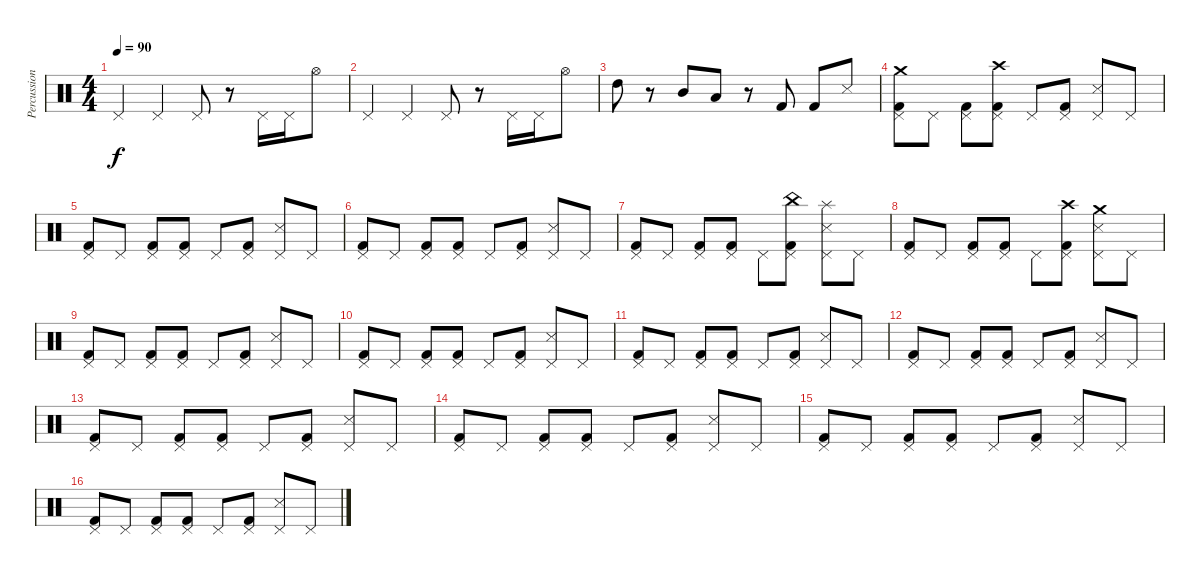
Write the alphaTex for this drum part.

\track ("Percussion" "Percussion") {instrument percussion}
\staff {score}
\articulation defaults
\ts (4 4)
\tempo 90
\clef neutral
\ks c "Pedal Hi-Hat (hit)".4{dy f} "Pedal Hi-Hat (hit)".4 "Pedal Hi-Hat (hit)".8
r.8 "Pedal Hi-Hat (hit)".16 "Pedal Hi-Hat (hit)".16 "Hi-Hat (open)".8 |
"Pedal Hi-Hat (hit)".4 "Pedal Hi-Hat (hit)".4 "Pedal Hi-Hat (hit)".8 r.8 "Pedal Hi-Hat (hit)".16 "Pedal Hi-Hat (hit)".16 "Hi-Hat (open)".8 |
"High Tom (hit)".8 r.8 "Mid Tom (hit)".8 "Low Tom (hit)".8 r.8 "Kick (hit) 2".8 "Kick (hit) 2".8 "Snare (side stick) 3".8 |
("Pedal Hi-Hat (hit)" "Kick (hit) 2" "Crash medium (hit)").8 "Pedal Hi-Hat (hit)".8 ("Pedal Hi-Hat (hit)" "Kick (hit) 2").8 ("Pedal Hi-Hat (hit)" "Kick (hit) 2" "Crash high (hit)").8 "Pedal Hi-Hat (hit)".8 ("Pedal Hi-Hat (hit)" "Kick (hit) 2").8 ("Pedal Hi-Hat (hit)" "Snare (side stick) 3").8 "Pedal Hi-Hat (hit)".8 |
("Pedal Hi-Hat (hit)" "Kick (hit) 2").8 "Pedal Hi-Hat (hit)".8 ("Pedal Hi-Hat (hit)" "Kick (hit) 2").8 ("Pedal Hi-Hat (hit)" "Kick (hit) 2").8 "Pedal Hi-Hat (hit)".8 ("Pedal Hi-Hat (hit)" "Kick (hit) 2").8 ("Pedal Hi-Hat (hit)" "Snare (side stick) 3").8 "Pedal Hi-Hat (hit)".8 |
("Pedal Hi-Hat (hit)" "Kick (hit) 2").8 "Pedal Hi-Hat (hit)".8 ("Pedal Hi-Hat (hit)" "Kick (hit) 2").8 ("Pedal Hi-Hat (hit)" "Kick (hit) 2").8 "Pedal Hi-Hat (hit)".8 ("Pedal Hi-Hat (hit)" "Kick (hit) 2").8 ("Pedal Hi-Hat (hit)" "Snare (side stick) 3").8 "Pedal Hi-Hat (hit)".8 |
("Pedal Hi-Hat (hit)" "Kick (hit) 2").8 "Pedal Hi-Hat (hit)".8 ("Pedal Hi-Hat (hit)" "Kick (hit) 2").8 ("Pedal Hi-Hat (hit)" "Kick (hit) 2").8 "Pedal Hi-Hat (hit)".8 ("Pedal Hi-Hat (hit)" "Kick (hit) 2" "China (hit)").8 ("Pedal Hi-Hat (hit)" "Snare (side stick) 3" "Splash (hit)").8 "Pedal Hi-Hat (hit)".8 |
("Pedal Hi-Hat (hit)" "Kick (hit) 2").8 "Pedal Hi-Hat (hit)".8 ("Pedal Hi-Hat (hit)" "Kick (hit) 2").8 ("Pedal Hi-Hat (hit)" "Kick (hit) 2").8 "Pedal Hi-Hat (hit)".8 ("Pedal Hi-Hat (hit)" "Kick (hit) 2" "Crash high (hit)").8 ("Pedal Hi-Hat (hit)" "Snare (side stick) 3" "Crash medium (hit)").8 "Pedal Hi-Hat (hit)".8 |
("Pedal Hi-Hat (hit)" "Kick (hit) 2").8 "Pedal Hi-Hat (hit)".8 ("Pedal Hi-Hat (hit)" "Kick (hit) 2").8 ("Pedal Hi-Hat (hit)" "Kick (hit) 2").8 "Pedal Hi-Hat (hit)".8 ("Pedal Hi-Hat (hit)" "Kick (hit) 2").8 ("Pedal Hi-Hat (hit)" "Snare (side stick) 3").8 "Pedal Hi-Hat (hit)".8 |
("Pedal Hi-Hat (hit)" "Kick (hit) 2").8 "Pedal Hi-Hat (hit)".8 ("Pedal Hi-Hat (hit)" "Kick (hit) 2").8 ("Pedal Hi-Hat (hit)" "Kick (hit) 2").8 "Pedal Hi-Hat (hit)".8 ("Pedal Hi-Hat (hit)" "Kick (hit) 2").8 ("Pedal Hi-Hat (hit)" "Snare (side stick) 3").8 "Pedal Hi-Hat (hit)".8 |
("Pedal Hi-Hat (hit)" "Kick (hit) 2").8 "Pedal Hi-Hat (hit)".8 ("Pedal Hi-Hat (hit)" "Kick (hit) 2").8 ("Pedal Hi-Hat (hit)" "Kick (hit) 2").8 "Pedal Hi-Hat (hit)".8 ("Pedal Hi-Hat (hit)" "Kick (hit) 2").8 ("Pedal Hi-Hat (hit)" "Snare (side stick) 3").8 "Pedal Hi-Hat (hit)".8 |
("Pedal Hi-Hat (hit)" "Kick (hit) 2").8 "Pedal Hi-Hat (hit)".8 ("Pedal Hi-Hat (hit)" "Kick (hit) 2").8 ("Pedal Hi-Hat (hit)" "Kick (hit) 2").8 "Pedal Hi-Hat (hit)".8 ("Pedal Hi-Hat (hit)" "Kick (hit) 2").8 ("Pedal Hi-Hat (hit)" "Snare (side stick) 3").8 "Pedal Hi-Hat (hit)".8 |
("Pedal Hi-Hat (hit)" "Kick (hit) 2").8 "Pedal Hi-Hat (hit)".8 ("Pedal Hi-Hat (hit)" "Kick (hit) 2").8 ("Pedal Hi-Hat (hit)" "Kick (hit) 2").8 "Pedal Hi-Hat (hit)".8 ("Pedal Hi-Hat (hit)" "Kick (hit) 2").8 ("Pedal Hi-Hat (hit)" "Snare (side stick) 3").8 "Pedal Hi-Hat (hit)".8 |
("Pedal Hi-Hat (hit)" "Kick (hit) 2").8 "Pedal Hi-Hat (hit)".8 ("Pedal Hi-Hat (hit)" "Kick (hit) 2").8 ("Pedal Hi-Hat (hit)" "Kick (hit) 2").8 "Pedal Hi-Hat (hit)".8 ("Pedal Hi-Hat (hit)" "Kick (hit) 2").8 ("Pedal Hi-Hat (hit)" "Snare (side stick) 3").8 "Pedal Hi-Hat (hit)".8 |
("Pedal Hi-Hat (hit)" "Kick (hit) 2").8 "Pedal Hi-Hat (hit)".8 ("Pedal Hi-Hat (hit)" "Kick (hit) 2").8 ("Pedal Hi-Hat (hit)" "Kick (hit) 2").8 "Pedal Hi-Hat (hit)".8 ("Pedal Hi-Hat (hit)" "Kick (hit) 2").8 ("Pedal Hi-Hat (hit)" "Snare (side stick) 3").8 "Pedal Hi-Hat (hit)".8 |
("Pedal Hi-Hat (hit)" "Kick (hit) 2").8 "Pedal Hi-Hat (hit)".8 ("Pedal Hi-Hat (hit)" "Kick (hit) 2").8 ("Pedal Hi-Hat (hit)" "Kick (hit) 2").8 "Pedal Hi-Hat (hit)".8 ("Pedal Hi-Hat (hit)" "Kick (hit) 2").8 ("Pedal Hi-Hat (hit)" "Snare (side stick) 3").8 "Pedal Hi-Hat (hit)".8{volume 6}
